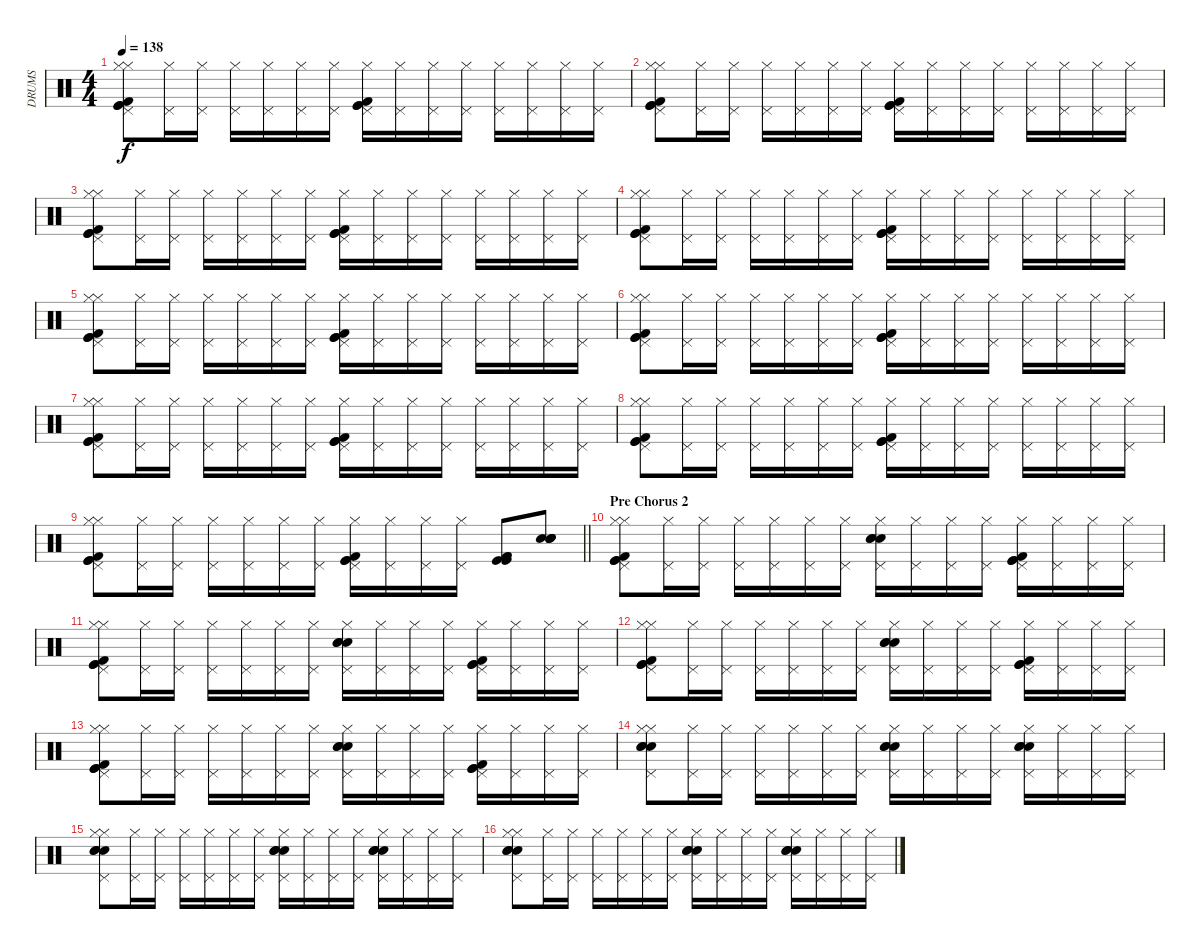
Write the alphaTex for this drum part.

\track ("DRUMS" "DRUMS") {instrument percussion}
\staff {score}
\articulation defaults
\ts (4 4)
\tempo 138
\clef neutral
\ks c
("Hi-Hat (closed)" "Pedal Hi-Hat (hit)" "Hi-Hat (closed)" "Kick (hit) 2" "Kick (hit)" "Kick (hit)").8{dy f} ("Hi-Hat (closed)" "Pedal Hi-Hat (hit)").16 ("Hi-Hat (closed)" "Pedal Hi-Hat (hit)").16 ("Hi-Hat (closed)" "Pedal Hi-Hat (hit)").16 ("Hi-Hat (closed)" "Pedal Hi-Hat (hit)").16 ("Hi-Hat (closed)" "Pedal Hi-Hat (hit)").16 ("Hi-Hat (closed)" "Pedal Hi-Hat (hit)").16 ("Hi-Hat (closed)" "Pedal Hi-Hat (hit)" "Kick (hit) 2" "Kick (hit)" "Kick (hit)").16 ("Hi-Hat (closed)" "Pedal Hi-Hat (hit)").16 ("Hi-Hat (closed)" "Pedal Hi-Hat (hit)").16 ("Hi-Hat (closed)" "Pedal Hi-Hat (hit)").16 ("Hi-Hat (closed)" "Pedal Hi-Hat (hit)").16 ("Hi-Hat (closed)" "Pedal Hi-Hat (hit)").16 ("Hi-Hat (closed)" "Pedal Hi-Hat (hit)").16 ("Hi-Hat (closed)" "Pedal Hi-Hat (hit)").16 |
("Hi-Hat (closed)" "Pedal Hi-Hat (hit)" "Hi-Hat (closed)" "Kick (hit) 2" "Kick (hit)" "Kick (hit)").8 ("Hi-Hat (closed)" "Pedal Hi-Hat (hit)").16 ("Hi-Hat (closed)" "Pedal Hi-Hat (hit)").16 ("Hi-Hat (closed)" "Pedal Hi-Hat (hit)").16 ("Hi-Hat (closed)" "Pedal Hi-Hat (hit)").16 ("Hi-Hat (closed)" "Pedal Hi-Hat (hit)").16 ("Hi-Hat (closed)" "Pedal Hi-Hat (hit)").16 ("Hi-Hat (closed)" "Pedal Hi-Hat (hit)" "Kick (hit) 2" "Kick (hit)" "Kick (hit)").16 ("Hi-Hat (closed)" "Pedal Hi-Hat (hit)").16 ("Hi-Hat (closed)" "Pedal Hi-Hat (hit)").16 ("Hi-Hat (closed)" "Pedal Hi-Hat (hit)").16 ("Hi-Hat (closed)" "Pedal Hi-Hat (hit)").16 ("Hi-Hat (closed)" "Pedal Hi-Hat (hit)").16 ("Hi-Hat (closed)" "Pedal Hi-Hat (hit)").16 ("Hi-Hat (closed)" "Pedal Hi-Hat (hit)").16 |
("Hi-Hat (closed)" "Pedal Hi-Hat (hit)" "Hi-Hat (closed)" "Kick (hit) 2" "Kick (hit)" "Kick (hit)").8 ("Hi-Hat (closed)" "Pedal Hi-Hat (hit)").16 ("Hi-Hat (closed)" "Pedal Hi-Hat (hit)").16 ("Hi-Hat (closed)" "Pedal Hi-Hat (hit)").16 ("Hi-Hat (closed)" "Pedal Hi-Hat (hit)").16 ("Hi-Hat (closed)" "Pedal Hi-Hat (hit)").16 ("Hi-Hat (closed)" "Pedal Hi-Hat (hit)").16 ("Hi-Hat (closed)" "Pedal Hi-Hat (hit)" "Kick (hit) 2" "Kick (hit)" "Kick (hit)").16 ("Hi-Hat (closed)" "Pedal Hi-Hat (hit)").16 ("Hi-Hat (closed)" "Pedal Hi-Hat (hit)").16 ("Hi-Hat (closed)" "Pedal Hi-Hat (hit)").16 ("Hi-Hat (closed)" "Pedal Hi-Hat (hit)").16 ("Hi-Hat (closed)" "Pedal Hi-Hat (hit)").16 ("Hi-Hat (closed)" "Pedal Hi-Hat (hit)").16 ("Hi-Hat (closed)" "Pedal Hi-Hat (hit)").16 |
("Hi-Hat (closed)" "Pedal Hi-Hat (hit)" "Hi-Hat (closed)" "Kick (hit) 2" "Kick (hit)" "Kick (hit)").8 ("Hi-Hat (closed)" "Pedal Hi-Hat (hit)").16 ("Hi-Hat (closed)" "Pedal Hi-Hat (hit)").16 ("Hi-Hat (closed)" "Pedal Hi-Hat (hit)").16 ("Hi-Hat (closed)" "Pedal Hi-Hat (hit)").16 ("Hi-Hat (closed)" "Pedal Hi-Hat (hit)").16 ("Hi-Hat (closed)" "Pedal Hi-Hat (hit)").16 ("Hi-Hat (closed)" "Pedal Hi-Hat (hit)" "Kick (hit) 2" "Kick (hit)" "Kick (hit)").16 ("Hi-Hat (closed)" "Pedal Hi-Hat (hit)").16 ("Hi-Hat (closed)" "Pedal Hi-Hat (hit)").16 ("Hi-Hat (closed)" "Pedal Hi-Hat (hit)").16 ("Hi-Hat (closed)" "Pedal Hi-Hat (hit)").16 ("Hi-Hat (closed)" "Pedal Hi-Hat (hit)").16 ("Hi-Hat (closed)" "Pedal Hi-Hat (hit)").16 ("Hi-Hat (closed)" "Pedal Hi-Hat (hit)").16 |
("Hi-Hat (closed)" "Pedal Hi-Hat (hit)" "Hi-Hat (closed)" "Kick (hit) 2" "Kick (hit)" "Kick (hit)").8 ("Hi-Hat (closed)" "Pedal Hi-Hat (hit)").16 ("Hi-Hat (closed)" "Pedal Hi-Hat (hit)").16 ("Hi-Hat (closed)" "Pedal Hi-Hat (hit)").16 ("Hi-Hat (closed)" "Pedal Hi-Hat (hit)").16 ("Hi-Hat (closed)" "Pedal Hi-Hat (hit)").16 ("Hi-Hat (closed)" "Pedal Hi-Hat (hit)").16 ("Hi-Hat (closed)" "Pedal Hi-Hat (hit)" "Kick (hit) 2" "Kick (hit)" "Kick (hit)").16 ("Hi-Hat (closed)" "Pedal Hi-Hat (hit)").16 ("Hi-Hat (closed)" "Pedal Hi-Hat (hit)").16 ("Hi-Hat (closed)" "Pedal Hi-Hat (hit)").16 ("Hi-Hat (closed)" "Pedal Hi-Hat (hit)").16 ("Hi-Hat (closed)" "Pedal Hi-Hat (hit)").16 ("Hi-Hat (closed)" "Pedal Hi-Hat (hit)").16 ("Hi-Hat (closed)" "Pedal Hi-Hat (hit)").16 |
("Hi-Hat (closed)" "Pedal Hi-Hat (hit)" "Hi-Hat (closed)" "Kick (hit) 2" "Kick (hit)" "Kick (hit)").8 ("Hi-Hat (closed)" "Pedal Hi-Hat (hit)").16 ("Hi-Hat (closed)" "Pedal Hi-Hat (hit)").16 ("Hi-Hat (closed)" "Pedal Hi-Hat (hit)").16 ("Hi-Hat (closed)" "Pedal Hi-Hat (hit)").16 ("Hi-Hat (closed)" "Pedal Hi-Hat (hit)").16 ("Hi-Hat (closed)" "Pedal Hi-Hat (hit)").16 ("Hi-Hat (closed)" "Pedal Hi-Hat (hit)" "Kick (hit) 2" "Kick (hit)" "Kick (hit)").16 ("Hi-Hat (closed)" "Pedal Hi-Hat (hit)").16 ("Hi-Hat (closed)" "Pedal Hi-Hat (hit)").16 ("Hi-Hat (closed)" "Pedal Hi-Hat (hit)").16 ("Hi-Hat (closed)" "Pedal Hi-Hat (hit)").16 ("Hi-Hat (closed)" "Pedal Hi-Hat (hit)").16 ("Hi-Hat (closed)" "Pedal Hi-Hat (hit)").16 ("Hi-Hat (closed)" "Pedal Hi-Hat (hit)").16 |
("Hi-Hat (closed)" "Pedal Hi-Hat (hit)" "Hi-Hat (closed)" "Kick (hit) 2" "Kick (hit)" "Kick (hit)").8 ("Hi-Hat (closed)" "Pedal Hi-Hat (hit)").16 ("Hi-Hat (closed)" "Pedal Hi-Hat (hit)").16 ("Hi-Hat (closed)" "Pedal Hi-Hat (hit)").16 ("Hi-Hat (closed)" "Pedal Hi-Hat (hit)").16 ("Hi-Hat (closed)" "Pedal Hi-Hat (hit)").16 ("Hi-Hat (closed)" "Pedal Hi-Hat (hit)").16 ("Hi-Hat (closed)" "Pedal Hi-Hat (hit)" "Kick (hit) 2" "Kick (hit)" "Kick (hit)").16 ("Hi-Hat (closed)" "Pedal Hi-Hat (hit)").16 ("Hi-Hat (closed)" "Pedal Hi-Hat (hit)").16 ("Hi-Hat (closed)" "Pedal Hi-Hat (hit)").16 ("Hi-Hat (closed)" "Pedal Hi-Hat (hit)").16 ("Hi-Hat (closed)" "Pedal Hi-Hat (hit)").16 ("Hi-Hat (closed)" "Pedal Hi-Hat (hit)").16 ("Hi-Hat (closed)" "Pedal Hi-Hat (hit)").16 |
("Hi-Hat (closed)" "Pedal Hi-Hat (hit)" "Hi-Hat (closed)" "Kick (hit) 2" "Kick (hit)" "Kick (hit)").8 ("Hi-Hat (closed)" "Pedal Hi-Hat (hit)").16 ("Hi-Hat (closed)" "Pedal Hi-Hat (hit)").16 ("Hi-Hat (closed)" "Pedal Hi-Hat (hit)").16 ("Hi-Hat (closed)" "Pedal Hi-Hat (hit)").16 ("Hi-Hat (closed)" "Pedal Hi-Hat (hit)").16 ("Hi-Hat (closed)" "Pedal Hi-Hat (hit)").16 ("Hi-Hat (closed)" "Pedal Hi-Hat (hit)" "Kick (hit) 2" "Kick (hit)" "Kick (hit)").16 ("Hi-Hat (closed)" "Pedal Hi-Hat (hit)").16 ("Hi-Hat (closed)" "Pedal Hi-Hat (hit)").16 ("Hi-Hat (closed)" "Pedal Hi-Hat (hit)").16 ("Hi-Hat (closed)" "Pedal Hi-Hat (hit)").16 ("Hi-Hat (closed)" "Pedal Hi-Hat (hit)").16 ("Hi-Hat (closed)" "Pedal Hi-Hat (hit)").16 ("Hi-Hat (closed)" "Pedal Hi-Hat (hit)").16 |
\barLineRight lightlight
("Hi-Hat (closed)" "Pedal Hi-Hat (hit)" "Hi-Hat (closed)" "Kick (hit) 2" "Kick (hit)" "Kick (hit)").8 ("Hi-Hat (closed)" "Pedal Hi-Hat (hit)").16 ("Hi-Hat (closed)" "Pedal Hi-Hat (hit)").16 ("Hi-Hat (closed)" "Pedal Hi-Hat (hit)").16 ("Hi-Hat (closed)" "Pedal Hi-Hat (hit)").16 ("Hi-Hat (closed)" "Pedal Hi-Hat (hit)").16 ("Hi-Hat (closed)" "Pedal Hi-Hat (hit)").16 ("Hi-Hat (closed)" "Pedal Hi-Hat (hit)" "Kick (hit) 2" "Kick (hit)" "Kick (hit)").16 ("Hi-Hat (closed)" "Pedal Hi-Hat (hit)").16 ("Hi-Hat (closed)" "Pedal Hi-Hat (hit)").16 ("Hi-Hat (closed)" "Pedal Hi-Hat (hit)").16 ("Kick (hit) 2" "Kick (hit) 2" "Kick (hit)" "Kick (hit)").8{volume 8} ("Snare (hit) 2" "Snare (hit) 2" "Electric Snare (hit)" "Snare (hit) 2").8 |
\section ("" "Pre Chorus 2")
("Hi-Hat (closed)" "Pedal Hi-Hat (hit)" "Hi-Hat (closed)" "Kick (hit) 2" "Kick (hit)" "Kick (hit)").8 ("Hi-Hat (closed)" "Pedal Hi-Hat (hit)").16 ("Hi-Hat (closed)" "Pedal Hi-Hat (hit)").16 ("Hi-Hat (closed)" "Pedal Hi-Hat (hit)").16 ("Hi-Hat (closed)" "Pedal Hi-Hat (hit)").16 ("Hi-Hat (closed)" "Pedal Hi-Hat (hit)").16 ("Hi-Hat (closed)" "Pedal Hi-Hat (hit)").16 ("Hi-Hat (closed)" "Pedal Hi-Hat (hit)" "Snare (hit) 2" "Electric Snare (hit)" "Snare (hit) 2").16 ("Hi-Hat (closed)" "Pedal Hi-Hat (hit)").16 ("Hi-Hat (closed)" "Pedal Hi-Hat (hit)").16 ("Hi-Hat (closed)" "Pedal Hi-Hat (hit)").16 ("Hi-Hat (closed)" "Pedal Hi-Hat (hit)" "Kick (hit) 2" "Kick (hit)" "Kick (hit)").16 ("Hi-Hat (closed)" "Pedal Hi-Hat (hit)").16 ("Hi-Hat (closed)" "Pedal Hi-Hat (hit)").16 ("Hi-Hat (closed)" "Pedal Hi-Hat (hit)").16 |
("Hi-Hat (closed)" "Pedal Hi-Hat (hit)" "Hi-Hat (closed)" "Kick (hit) 2" "Kick (hit)" "Kick (hit)").8 ("Hi-Hat (closed)" "Pedal Hi-Hat (hit)").16 ("Hi-Hat (closed)" "Pedal Hi-Hat (hit)").16 ("Hi-Hat (closed)" "Pedal Hi-Hat (hit)").16 ("Hi-Hat (closed)" "Pedal Hi-Hat (hit)").16 ("Hi-Hat (closed)" "Pedal Hi-Hat (hit)").16 ("Hi-Hat (closed)" "Pedal Hi-Hat (hit)").16 ("Hi-Hat (closed)" "Pedal Hi-Hat (hit)" "Snare (hit) 2" "Electric Snare (hit)" "Snare (hit) 2").16 ("Hi-Hat (closed)" "Pedal Hi-Hat (hit)").16 ("Hi-Hat (closed)" "Pedal Hi-Hat (hit)").16 ("Hi-Hat (closed)" "Pedal Hi-Hat (hit)").16 ("Hi-Hat (closed)" "Pedal Hi-Hat (hit)" "Kick (hit) 2" "Kick (hit)" "Kick (hit)").16 ("Hi-Hat (closed)" "Pedal Hi-Hat (hit)").16 ("Hi-Hat (closed)" "Pedal Hi-Hat (hit)").16 ("Hi-Hat (closed)" "Pedal Hi-Hat (hit)").16 |
("Hi-Hat (closed)" "Pedal Hi-Hat (hit)" "Hi-Hat (closed)" "Kick (hit) 2" "Kick (hit)" "Kick (hit)").8 ("Hi-Hat (closed)" "Pedal Hi-Hat (hit)").16 ("Hi-Hat (closed)" "Pedal Hi-Hat (hit)").16 ("Hi-Hat (closed)" "Pedal Hi-Hat (hit)").16 ("Hi-Hat (closed)" "Pedal Hi-Hat (hit)").16 ("Hi-Hat (closed)" "Pedal Hi-Hat (hit)").16 ("Hi-Hat (closed)" "Pedal Hi-Hat (hit)").16 ("Hi-Hat (closed)" "Pedal Hi-Hat (hit)" "Snare (hit) 2" "Electric Snare (hit)" "Snare (hit) 2").16 ("Hi-Hat (closed)" "Pedal Hi-Hat (hit)").16 ("Hi-Hat (closed)" "Pedal Hi-Hat (hit)").16 ("Hi-Hat (closed)" "Pedal Hi-Hat (hit)").16 ("Hi-Hat (closed)" "Pedal Hi-Hat (hit)" "Kick (hit) 2" "Kick (hit)" "Kick (hit)").16 ("Hi-Hat (closed)" "Pedal Hi-Hat (hit)").16 ("Hi-Hat (closed)" "Pedal Hi-Hat (hit)").16 ("Hi-Hat (closed)" "Pedal Hi-Hat (hit)").16 |
("Hi-Hat (closed)" "Pedal Hi-Hat (hit)" "Hi-Hat (closed)" "Kick (hit) 2" "Kick (hit)" "Kick (hit)").8 ("Hi-Hat (closed)" "Pedal Hi-Hat (hit)").16 ("Hi-Hat (closed)" "Pedal Hi-Hat (hit)").16 ("Hi-Hat (closed)" "Pedal Hi-Hat (hit)").16 ("Hi-Hat (closed)" "Pedal Hi-Hat (hit)").16 ("Hi-Hat (closed)" "Pedal Hi-Hat (hit)").16 ("Hi-Hat (closed)" "Pedal Hi-Hat (hit)").16 ("Hi-Hat (closed)" "Pedal Hi-Hat (hit)" "Snare (hit) 2" "Electric Snare (hit)" "Snare (hit) 2").16 ("Hi-Hat (closed)" "Pedal Hi-Hat (hit)").16 ("Hi-Hat (closed)" "Pedal Hi-Hat (hit)").16 ("Hi-Hat (closed)" "Pedal Hi-Hat (hit)").16 ("Hi-Hat (closed)" "Pedal Hi-Hat (hit)" "Kick (hit) 2" "Kick (hit)" "Kick (hit)").16 ("Hi-Hat (closed)" "Pedal Hi-Hat (hit)").16 ("Hi-Hat (closed)" "Pedal Hi-Hat (hit)").16 ("Hi-Hat (closed)" "Pedal Hi-Hat (hit)").16 |
("Hi-Hat (closed)" "Pedal Hi-Hat (hit)" "Hi-Hat (closed)" "Snare (hit) 2" "Electric Snare (hit)" "Snare (hit) 2").8 ("Hi-Hat (closed)" "Pedal Hi-Hat (hit)").16 ("Hi-Hat (closed)" "Pedal Hi-Hat (hit)").16 ("Hi-Hat (closed)" "Pedal Hi-Hat (hit)").16 ("Hi-Hat (closed)" "Pedal Hi-Hat (hit)").16 ("Hi-Hat (closed)" "Pedal Hi-Hat (hit)").16 ("Hi-Hat (closed)" "Pedal Hi-Hat (hit)").16 ("Hi-Hat (closed)" "Pedal Hi-Hat (hit)" "Snare (hit) 2" "Electric Snare (hit)" "Snare (hit) 2").16 ("Hi-Hat (closed)" "Pedal Hi-Hat (hit)").16 ("Hi-Hat (closed)" "Pedal Hi-Hat (hit)").16 ("Hi-Hat (closed)" "Pedal Hi-Hat (hit)").16 ("Hi-Hat (closed)" "Pedal Hi-Hat (hit)" "Snare (hit) 2" "Electric Snare (hit)" "Snare (hit) 2").16 ("Hi-Hat (closed)" "Pedal Hi-Hat (hit)").16 ("Hi-Hat (closed)" "Pedal Hi-Hat (hit)").16 ("Hi-Hat (closed)" "Pedal Hi-Hat (hit)").16 |
("Hi-Hat (closed)" "Pedal Hi-Hat (hit)" "Hi-Hat (closed)" "Snare (hit) 2" "Electric Snare (hit)" "Snare (hit) 2").8 ("Hi-Hat (closed)" "Pedal Hi-Hat (hit)").16 ("Hi-Hat (closed)" "Pedal Hi-Hat (hit)").16 ("Hi-Hat (closed)" "Pedal Hi-Hat (hit)").16 ("Hi-Hat (closed)" "Pedal Hi-Hat (hit)").16 ("Hi-Hat (closed)" "Pedal Hi-Hat (hit)").16 ("Hi-Hat (closed)" "Pedal Hi-Hat (hit)").16 ("Hi-Hat (closed)" "Pedal Hi-Hat (hit)" "Snare (hit) 2" "Electric Snare (hit)" "Snare (hit) 2").16 ("Hi-Hat (closed)" "Pedal Hi-Hat (hit)").16 ("Hi-Hat (closed)" "Pedal Hi-Hat (hit)").16 ("Hi-Hat (closed)" "Pedal Hi-Hat (hit)").16 ("Hi-Hat (closed)" "Pedal Hi-Hat (hit)" "Snare (hit) 2" "Electric Snare (hit)" "Snare (hit) 2").16 ("Hi-Hat (closed)" "Pedal Hi-Hat (hit)").16 ("Hi-Hat (closed)" "Pedal Hi-Hat (hit)").16 ("Hi-Hat (closed)" "Pedal Hi-Hat (hit)").16 |
("Hi-Hat (closed)" "Pedal Hi-Hat (hit)" "Hi-Hat (closed)" "Snare (hit) 2" "Electric Snare (hit)" "Snare (hit) 2").8 ("Hi-Hat (closed)" "Pedal Hi-Hat (hit)").16 ("Hi-Hat (closed)" "Pedal Hi-Hat (hit)").16 ("Hi-Hat (closed)" "Pedal Hi-Hat (hit)").16 ("Hi-Hat (closed)" "Pedal Hi-Hat (hit)").16 ("Hi-Hat (closed)" "Pedal Hi-Hat (hit)").16 ("Hi-Hat (closed)" "Pedal Hi-Hat (hit)").16 ("Hi-Hat (closed)" "Pedal Hi-Hat (hit)" "Snare (hit) 2" "Electric Snare (hit)" "Snare (hit) 2").16 ("Hi-Hat (closed)" "Pedal Hi-Hat (hit)").16 ("Hi-Hat (closed)" "Pedal Hi-Hat (hit)").16 ("Hi-Hat (closed)" "Pedal Hi-Hat (hit)").16 ("Hi-Hat (closed)" "Pedal Hi-Hat (hit)" "Snare (hit) 2" "Electric Snare (hit)" "Snare (hit) 2").16 ("Hi-Hat (closed)" "Pedal Hi-Hat (hit)").16 ("Hi-Hat (closed)" "Pedal Hi-Hat (hit)").16 ("Hi-Hat (closed)" "Pedal Hi-Hat (hit)").16
